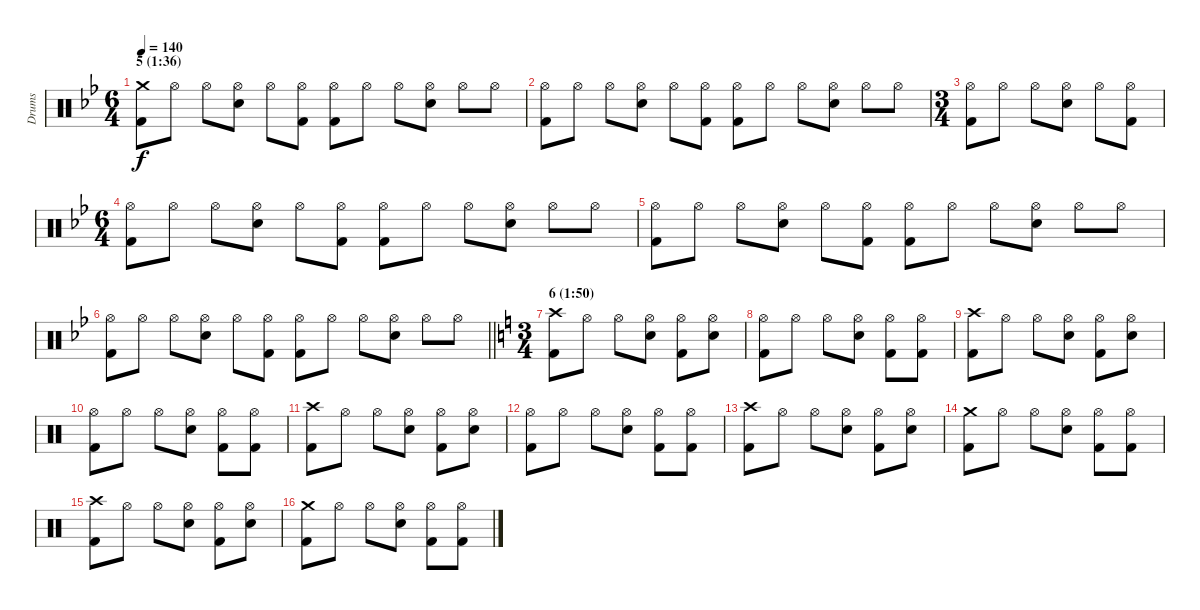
\track ("Drums" "Drums") {instrument percussion}
\staff {score}
\articulation defaults
\ts (6 4)
\section ("" "5 (1:36)")
\tempo 140
\clef neutral
\ks gminor
("Crash medium (hit)" "Kick (hit) 2").8{dy f} "Hi-Hat (open)".8 "Hi-Hat (open)".8 ("Hi-Hat (open)" "Snare (hit) 2").8 "Hi-Hat (open)".8 ("Hi-Hat (open)" "Kick (hit) 2").8 ("Hi-Hat (open)" "Kick (hit) 2").8 "Hi-Hat (open)".8 "Hi-Hat (open)".8 ("Hi-Hat (open)" "Snare (hit) 2").8 "Hi-Hat (open)".8 "Hi-Hat (open)".8 |
("Hi-Hat (open)" "Kick (hit) 2").8 "Hi-Hat (open)".8 "Hi-Hat (open)".8 ("Hi-Hat (open)" "Snare (hit) 2").8 "Hi-Hat (open)".8 ("Hi-Hat (open)" "Kick (hit) 2").8 ("Hi-Hat (open)" "Kick (hit) 2").8 "Hi-Hat (open)".8 "Hi-Hat (open)".8 ("Hi-Hat (open)" "Snare (hit) 2").8 "Hi-Hat (open)".8 "Hi-Hat (open)".8 |
\ts (3 4)
("Hi-Hat (open)" "Kick (hit) 2").8 "Hi-Hat (open)".8 "Hi-Hat (open)".8 ("Hi-Hat (open)" "Snare (hit) 2").8 "Hi-Hat (open)".8 ("Hi-Hat (open)" "Kick (hit) 2").8 |
\ts (6 4)
("Hi-Hat (open)" "Kick (hit) 2").8 "Hi-Hat (open)".8 "Hi-Hat (open)".8 ("Hi-Hat (open)" "Snare (hit) 2").8 "Hi-Hat (open)".8 ("Hi-Hat (open)" "Kick (hit) 2").8 ("Hi-Hat (open)" "Kick (hit) 2").8 "Hi-Hat (open)".8 "Hi-Hat (open)".8 ("Hi-Hat (open)" "Snare (hit) 2").8 "Hi-Hat (open)".8 "Hi-Hat (open)".8 |
("Hi-Hat (open)" "Kick (hit) 2").8 "Hi-Hat (open)".8 "Hi-Hat (open)".8 ("Hi-Hat (open)" "Snare (hit) 2").8 "Hi-Hat (open)".8 ("Hi-Hat (open)" "Kick (hit) 2").8 ("Hi-Hat (open)" "Kick (hit) 2").8 "Hi-Hat (open)".8 "Hi-Hat (open)".8 ("Hi-Hat (open)" "Snare (hit) 2").8 "Hi-Hat (open)".8 "Hi-Hat (open)".8 |
\barLineRight lightlight
("Hi-Hat (open)" "Kick (hit) 2").8 "Hi-Hat (open)".8 "Hi-Hat (open)".8 ("Hi-Hat (open)" "Snare (hit) 2").8 "Hi-Hat (open)".8 ("Hi-Hat (open)" "Kick (hit) 2").8 ("Hi-Hat (open)" "Kick (hit) 2").8 "Hi-Hat (open)".8 "Hi-Hat (open)".8 ("Hi-Hat (open)" "Snare (hit) 2").8 "Hi-Hat (open)".8 "Hi-Hat (open)".8 |
\ts (3 4)
\section ("" "6 (1:50)")
\ks c
("Crash high (hit)" "Kick (hit) 2").8 "Hi-Hat (open)".8 "Hi-Hat (open)".8 ("Hi-Hat (open)" "Snare (hit) 2").8 ("Hi-Hat (open)" "Kick (hit) 2").8 ("Hi-Hat (open)" "Snare (hit) 2").8 |
("Hi-Hat (open)" "Kick (hit) 2").8 "Hi-Hat (open)".8 "Hi-Hat (open)".8 ("Hi-Hat (open)" "Snare (hit) 2").8 ("Hi-Hat (open)" "Kick (hit) 2").8 ("Hi-Hat (open)" "Kick (hit) 2").8 |
("Crash high (hit)" "Kick (hit) 2").8 "Hi-Hat (open)".8 "Hi-Hat (open)".8 ("Hi-Hat (open)" "Snare (hit) 2").8 ("Hi-Hat (open)" "Kick (hit) 2").8 ("Hi-Hat (open)" "Snare (hit) 2").8 |
("Hi-Hat (open)" "Kick (hit) 2").8 "Hi-Hat (open)".8 "Hi-Hat (open)".8 ("Hi-Hat (open)" "Snare (hit) 2").8 ("Hi-Hat (open)" "Kick (hit) 2").8 ("Hi-Hat (open)" "Kick (hit) 2").8 |
("Crash high (hit)" "Kick (hit) 2").8 "Hi-Hat (open)".8 "Hi-Hat (open)".8 ("Hi-Hat (open)" "Snare (hit) 2").8 ("Hi-Hat (open)" "Kick (hit) 2").8 ("Hi-Hat (open)" "Snare (hit) 2").8 |
("Hi-Hat (open)" "Kick (hit) 2").8 "Hi-Hat (open)".8 "Hi-Hat (open)".8 ("Hi-Hat (open)" "Snare (hit) 2").8 ("Hi-Hat (open)" "Kick (hit) 2").8 ("Hi-Hat (open)" "Kick (hit) 2").8 |
("Crash high (hit)" "Kick (hit) 2").8 "Hi-Hat (open)".8 "Hi-Hat (open)".8 ("Hi-Hat (open)" "Snare (hit) 2").8 ("Hi-Hat (open)" "Kick (hit) 2").8 ("Hi-Hat (open)" "Snare (hit) 2").8 |
("Crash medium (hit)" "Kick (hit) 2").8 "Hi-Hat (open)".8 "Hi-Hat (open)".8 ("Hi-Hat (open)" "Snare (hit) 2").8 ("Hi-Hat (open)" "Kick (hit) 2").8 ("Hi-Hat (open)" "Kick (hit) 2").8 |
("Crash high (hit)" "Kick (hit) 2").8 "Hi-Hat (open)".8 "Hi-Hat (open)".8 ("Hi-Hat (open)" "Snare (hit) 2").8 ("Hi-Hat (open)" "Kick (hit) 2").8 ("Hi-Hat (open)" "Snare (hit) 2").8 |
("Crash medium (hit)" "Kick (hit) 2").8 "Hi-Hat (open)".8 "Hi-Hat (open)".8 ("Hi-Hat (open)" "Snare (hit) 2").8 ("Hi-Hat (open)" "Kick (hit) 2").8 ("Hi-Hat (open)" "Kick (hit) 2").8
